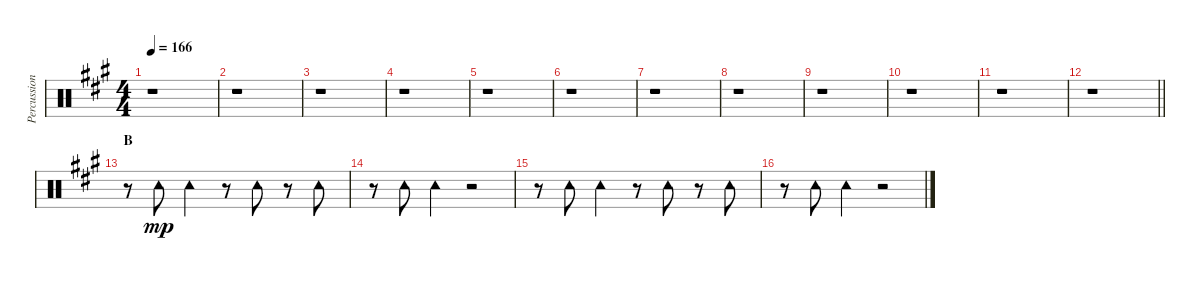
\track ("Percussion I" "Percussion") {instrument percussion}
\staff {score}
\articulation defaults
\ts (4 4)
\tempo 166
\clef neutral
\ks a
r.1{dy f} |
r.1 |
r.1 |
r.1 |
r.1 |
r.1 |
r.1 |
r.1 |
r.1 |
r.1 |
r.1 |
\barLineRight lightlight
r.1 |
\section ("" "B")
r.8 "Tambourine (hit)".8{dy mp} "Tambourine (hit)".4 r.8 "Tambourine (hit)".8 r.8 "Tambourine (hit)".8 |
r.8 "Tambourine (hit)".8 "Tambourine (hit)".4 r.2 |
r.8 "Tambourine (hit)".8 "Tambourine (hit)".4 r.8 "Tambourine (hit)".8 r.8 "Tambourine (hit)".8 |
r.8 "Tambourine (hit)".8 "Tambourine (hit)".4 r.2
